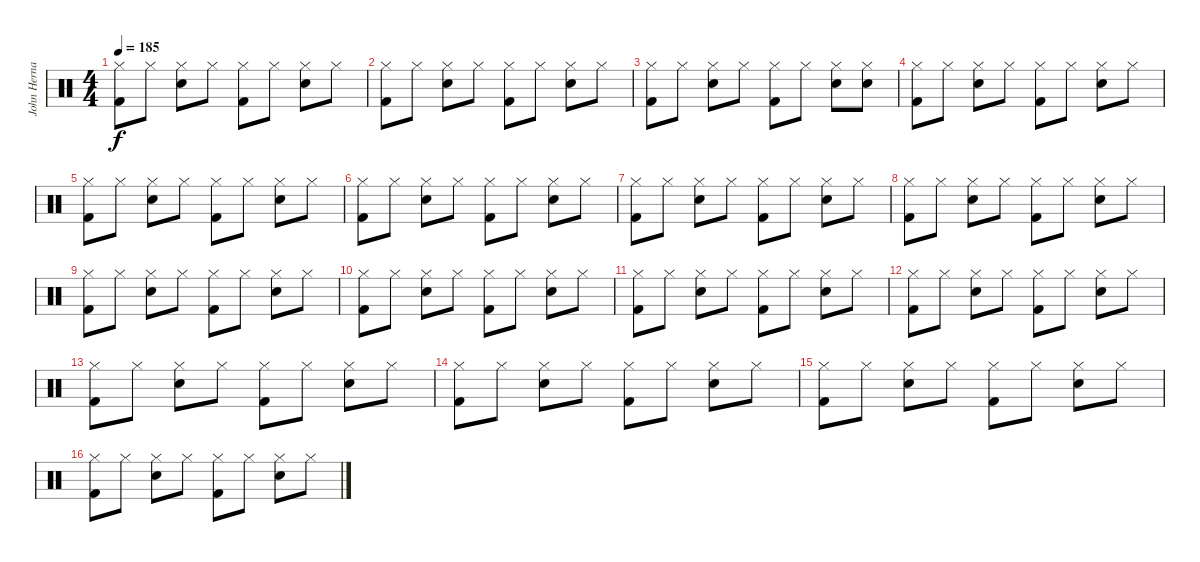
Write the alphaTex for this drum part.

\track ("John Hernandez" "John Herna") {instrument percussion}
\staff {score}
\articulation defaults
\ts (4 4)
\tempo 185
\clef neutral
\ks c
("Hi-Hat (closed)" "Kick (hit) 2").8{dy f} "Hi-Hat (closed)".8 ("Hi-Hat (closed)" "Snare (hit) 2").8 "Hi-Hat (closed)".8 ("Hi-Hat (closed)" "Kick (hit) 2").8 "Hi-Hat (closed)".8 ("Hi-Hat (closed)" "Snare (hit) 2").8 "Hi-Hat (closed)".8 |
("Hi-Hat (closed)" "Kick (hit) 2").8 "Hi-Hat (closed)".8 ("Hi-Hat (closed)" "Snare (hit) 2").8 "Hi-Hat (closed)".8 ("Hi-Hat (closed)" "Kick (hit) 2").8 "Hi-Hat (closed)".8 ("Hi-Hat (closed)" "Snare (hit) 2").8 "Hi-Hat (closed)".8 |
("Hi-Hat (closed)" "Kick (hit) 2").8 "Hi-Hat (closed)".8 ("Hi-Hat (closed)" "Snare (hit) 2").8 "Hi-Hat (closed)".8 ("Hi-Hat (closed)" "Kick (hit) 2").8 "Hi-Hat (closed)".8 ("Hi-Hat (closed)" "Snare (hit) 2").8 ("Hi-Hat (closed)" "Snare (hit) 2").8 |
("Hi-Hat (closed)" "Kick (hit) 2").8 "Hi-Hat (closed)".8 ("Hi-Hat (closed)" "Snare (hit) 2").8 "Hi-Hat (closed)".8 ("Hi-Hat (closed)" "Kick (hit) 2").8 "Hi-Hat (closed)".8 ("Hi-Hat (closed)" "Snare (hit) 2").8 "Hi-Hat (closed)".8 |
("Hi-Hat (closed)" "Kick (hit) 2").8 "Hi-Hat (closed)".8 ("Hi-Hat (closed)" "Snare (hit) 2").8 "Hi-Hat (closed)".8 ("Hi-Hat (closed)" "Kick (hit) 2").8 "Hi-Hat (closed)".8 ("Hi-Hat (closed)" "Snare (hit) 2").8 "Hi-Hat (closed)".8 |
("Hi-Hat (closed)" "Kick (hit) 2").8 "Hi-Hat (closed)".8 ("Hi-Hat (closed)" "Snare (hit) 2").8 "Hi-Hat (closed)".8 ("Hi-Hat (closed)" "Kick (hit) 2").8 "Hi-Hat (closed)".8 ("Hi-Hat (closed)" "Snare (hit) 2").8 "Hi-Hat (closed)".8 |
("Hi-Hat (closed)" "Kick (hit) 2").8 "Hi-Hat (closed)".8 ("Hi-Hat (closed)" "Snare (hit) 2").8 "Hi-Hat (closed)".8 ("Hi-Hat (closed)" "Kick (hit) 2").8 "Hi-Hat (closed)".8 ("Hi-Hat (closed)" "Snare (hit) 2").8 "Hi-Hat (closed)".8 |
("Hi-Hat (closed)" "Kick (hit) 2").8 "Hi-Hat (closed)".8 ("Hi-Hat (closed)" "Snare (hit) 2").8 "Hi-Hat (closed)".8 ("Hi-Hat (closed)" "Kick (hit) 2").8 "Hi-Hat (closed)".8 ("Hi-Hat (closed)" "Snare (hit) 2").8 "Hi-Hat (closed)".8 |
("Hi-Hat (closed)" "Kick (hit) 2").8 "Hi-Hat (closed)".8 ("Hi-Hat (closed)" "Snare (hit) 2").8 "Hi-Hat (closed)".8 ("Hi-Hat (closed)" "Kick (hit) 2").8 "Hi-Hat (closed)".8 ("Hi-Hat (closed)" "Snare (hit) 2").8 "Hi-Hat (closed)".8 |
("Hi-Hat (closed)" "Kick (hit) 2").8 "Hi-Hat (closed)".8 ("Hi-Hat (closed)" "Snare (hit) 2").8 "Hi-Hat (closed)".8 ("Hi-Hat (closed)" "Kick (hit) 2").8 "Hi-Hat (closed)".8 ("Hi-Hat (closed)" "Snare (hit) 2").8 "Hi-Hat (closed)".8 |
("Hi-Hat (closed)" "Kick (hit) 2").8 "Hi-Hat (closed)".8 ("Hi-Hat (closed)" "Snare (hit) 2").8 "Hi-Hat (closed)".8 ("Hi-Hat (closed)" "Kick (hit) 2").8 "Hi-Hat (closed)".8 ("Hi-Hat (closed)" "Snare (hit) 2").8 "Hi-Hat (closed)".8 |
("Hi-Hat (closed)" "Kick (hit) 2").8 "Hi-Hat (closed)".8 ("Hi-Hat (closed)" "Snare (hit) 2").8 "Hi-Hat (closed)".8 ("Hi-Hat (closed)" "Kick (hit) 2").8 "Hi-Hat (closed)".8 ("Hi-Hat (closed)" "Snare (hit) 2").8 "Hi-Hat (closed)".8 |
("Hi-Hat (closed)" "Kick (hit) 2").8 "Hi-Hat (closed)".8 ("Hi-Hat (closed)" "Snare (hit) 2").8 "Hi-Hat (closed)".8 ("Hi-Hat (closed)" "Kick (hit) 2").8 "Hi-Hat (closed)".8 ("Hi-Hat (closed)" "Snare (hit) 2").8 "Hi-Hat (closed)".8 |
("Hi-Hat (closed)" "Kick (hit) 2").8 "Hi-Hat (closed)".8 ("Hi-Hat (closed)" "Snare (hit) 2").8 "Hi-Hat (closed)".8 ("Hi-Hat (closed)" "Kick (hit) 2").8 "Hi-Hat (closed)".8 ("Hi-Hat (closed)" "Snare (hit) 2").8 "Hi-Hat (closed)".8 |
("Hi-Hat (closed)" "Kick (hit) 2").8 "Hi-Hat (closed)".8 ("Hi-Hat (closed)" "Snare (hit) 2").8 "Hi-Hat (closed)".8 ("Hi-Hat (closed)" "Kick (hit) 2").8 "Hi-Hat (closed)".8 ("Hi-Hat (closed)" "Snare (hit) 2").8 "Hi-Hat (closed)".8 |
("Hi-Hat (closed)" "Kick (hit) 2").8 "Hi-Hat (closed)".8 ("Hi-Hat (closed)" "Snare (hit) 2").8 "Hi-Hat (closed)".8 ("Hi-Hat (closed)" "Kick (hit) 2").8 "Hi-Hat (closed)".8 ("Hi-Hat (closed)" "Snare (hit) 2").8 "Hi-Hat (closed)".8
